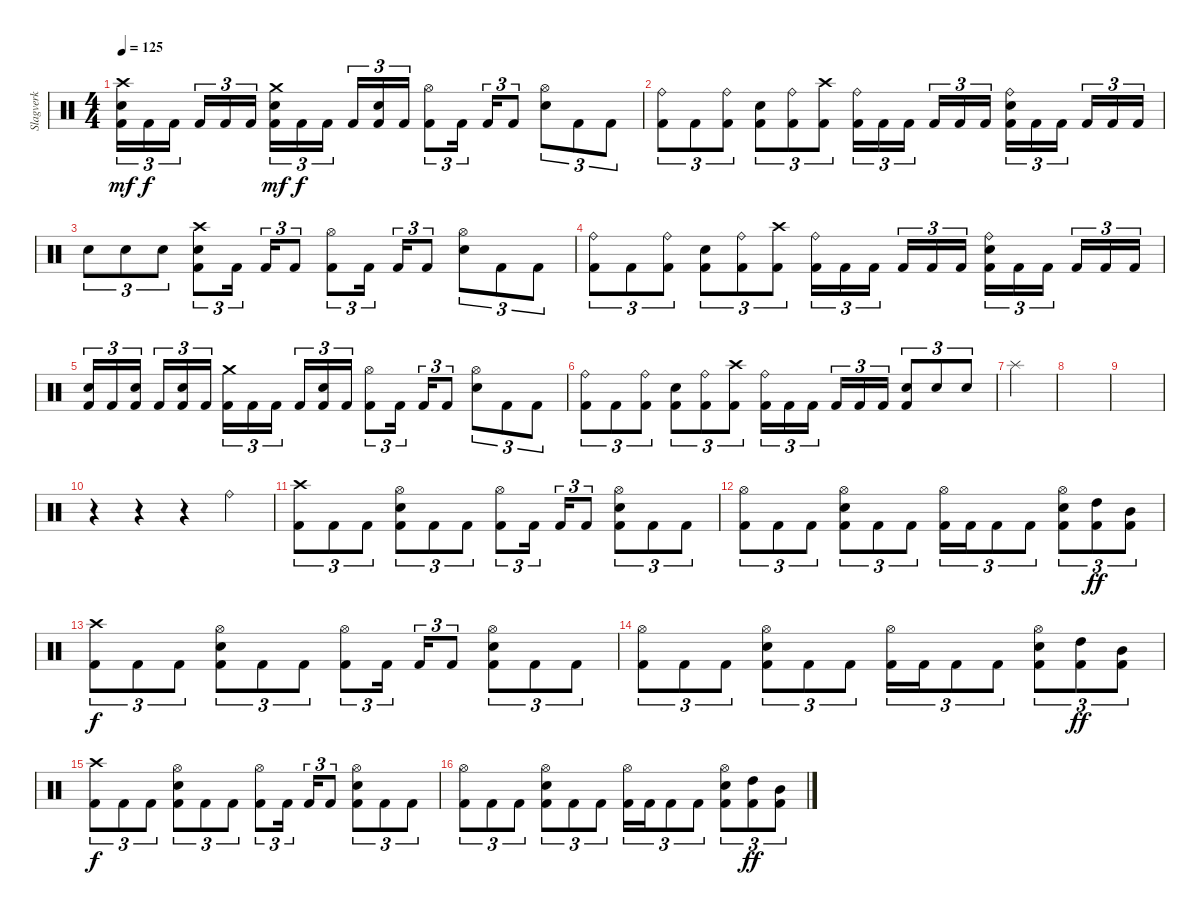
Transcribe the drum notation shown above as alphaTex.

\track ("Slagverk" "Slagverk") {instrument percussion}
\staff {score}
\articulation defaults
\ts (4 4)
\tempo 125
\clef neutral
\ks c
("Crash high (hit)" "Electric Snare (hit)" "Kick (hit) 2").16{tu (3 2) dy mf} "Kick (hit) 2".16{tu (3 2) dy f} "Kick (hit) 2".16{tu (3 2) beam splitsecondary} "Kick (hit) 2".16{tu (3 2)} "Kick (hit) 2".16{tu (3 2)} "Kick (hit) 2".16{tu (3 2)} ("Crash medium (hit)" "Electric Snare (hit)" "Kick (hit) 2").16{tu (3 2) dy mf} "Kick (hit) 2".16{tu (3 2) dy f} "Kick (hit) 2".16{tu (3 2) beam splitsecondary} "Kick (hit) 2".16{tu (3 2)} ("Electric Snare (hit)" "Kick (hit) 2").16{tu (3 2)} "Kick (hit) 2".16{tu (3 2)} ("Hi-Hat (open)" "Kick (hit) 2").8{tu (3 2)} "Kick (hit) 2".16{tu (3 2) beam splitsecondary} "Kick (hit) 2".16{tu (3 2)} "Kick (hit) 2".8{tu (3 2)} ("Hi-Hat (open)" "Electric Snare (hit)").8{tu (3 2)} "Kick (hit) 2".8{tu (3 2)} "Kick (hit) 2".8{tu (3 2)} |
("Ride (bell)" "Kick (hit) 2").8{tu (3 2)} "Kick (hit) 2".8{tu (3 2)} ("Ride (bell)" "Kick (hit) 2").8{tu (3 2)} ("Electric Snare (hit)" "Kick (hit) 2").8{tu (3 2)} ("Ride (bell)" "Kick (hit) 2").8{tu (3 2)} ("Crash high (hit)" "Kick (hit) 2").8{tu (3 2)} ("Ride (bell)" "Kick (hit) 2").16{tu (3 2)} "Kick (hit) 2".16{tu (3 2)} "Kick (hit) 2".16{tu (3 2) beam splitsecondary} "Kick (hit) 2".16{tu (3 2)} "Kick (hit) 2".16{tu (3 2)} "Kick (hit) 2".16{tu (3 2)} ("Ride (bell)" "Electric Snare (hit)" "Kick (hit) 2").16{tu (3 2)} "Kick (hit) 2".16{tu (3 2)} "Kick (hit) 2".16{tu (3 2) beam splitsecondary} "Kick (hit) 2".16{tu (3 2)} "Kick (hit) 2".16{tu (3 2)} "Kick (hit) 2".16{tu (3 2)} |
"Electric Snare (hit)".8{tu (3 2)} "Electric Snare (hit)".8{tu (3 2)} "Electric Snare (hit)".8{tu (3 2)} ("Crash high (hit)" "Electric Snare (hit)" "Kick (hit) 2").8{tu (3 2)} "Kick (hit) 2".16{tu (3 2) beam splitsecondary} "Kick (hit) 2".16{tu (3 2)} "Kick (hit) 2".8{tu (3 2)} ("Hi-Hat (open)" "Kick (hit) 2").8{tu (3 2)} "Kick (hit) 2".16{tu (3 2) beam splitsecondary} "Kick (hit) 2".16{tu (3 2)} "Kick (hit) 2".8{tu (3 2)} ("Hi-Hat (open)" "Electric Snare (hit)").8{tu (3 2)} "Kick (hit) 2".8{tu (3 2)} "Kick (hit) 2".8{tu (3 2)} |
("Ride (bell)" "Kick (hit) 2").8{tu (3 2)} "Kick (hit) 2".8{tu (3 2)} ("Ride (bell)" "Kick (hit) 2").8{tu (3 2)} ("Electric Snare (hit)" "Kick (hit) 2").8{tu (3 2)} ("Ride (bell)" "Kick (hit) 2").8{tu (3 2)} ("Crash high (hit)" "Kick (hit) 2").8{tu (3 2)} ("Ride (bell)" "Kick (hit) 2").16{tu (3 2)} "Kick (hit) 2".16{tu (3 2)} "Kick (hit) 2".16{tu (3 2) beam splitsecondary} "Kick (hit) 2".16{tu (3 2)} "Kick (hit) 2".16{tu (3 2)} "Kick (hit) 2".16{tu (3 2)} ("Ride (bell)" "Electric Snare (hit)" "Kick (hit) 2").16{tu (3 2)} "Kick (hit) 2".16{tu (3 2)} "Kick (hit) 2".16{tu (3 2) beam splitsecondary} "Kick (hit) 2".16{tu (3 2)} "Kick (hit) 2".16{tu (3 2)} "Kick (hit) 2".16{tu (3 2)} |
("Electric Snare (hit)" "Kick (hit) 2").16{tu (3 2)} "Kick (hit) 2".16{tu (3 2)} ("Electric Snare (hit)" "Kick (hit) 2").16{tu (3 2) beam splitsecondary} "Kick (hit) 2".16{tu (3 2)} ("Electric Snare (hit)" "Kick (hit) 2").16{tu (3 2)} "Kick (hit) 2".16{tu (3 2)} ("Crash medium (hit)" "Kick (hit) 2").16{tu (3 2)} "Kick (hit) 2".16{tu (3 2)} "Kick (hit) 2".16{tu (3 2) beam splitsecondary} "Kick (hit) 2".16{tu (3 2)} ("Electric Snare (hit)" "Kick (hit) 2").16{tu (3 2)} "Kick (hit) 2".16{tu (3 2)} ("Hi-Hat (open)" "Kick (hit) 2").8{tu (3 2)} "Kick (hit) 2".16{tu (3 2) beam splitsecondary} "Kick (hit) 2".16{tu (3 2)} "Kick (hit) 2".8{tu (3 2)} ("Hi-Hat (open)" "Electric Snare (hit)").8{tu (3 2)} "Kick (hit) 2".8{tu (3 2)} "Kick (hit) 2".8{tu (3 2)} |
("Ride (bell)" "Kick (hit) 2").8{tu (3 2)} "Kick (hit) 2".8{tu (3 2)} ("Ride (bell)" "Kick (hit) 2").8{tu (3 2)} ("Electric Snare (hit)" "Kick (hit) 2").8{tu (3 2)} ("Ride (bell)" "Kick (hit) 2").8{tu (3 2)} ("Crash high (hit)" "Kick (hit) 2").8{tu (3 2)} ("Ride (bell)" "Kick (hit) 2").16{tu (3 2)} "Kick (hit) 2".16{tu (3 2)} "Kick (hit) 2".16{tu (3 2) beam splitsecondary} "Kick (hit) 2".16{tu (3 2)} "Kick (hit) 2".16{tu (3 2)} "Kick (hit) 2".16{tu (3 2)} ("Electric Snare (hit)" "Kick (hit) 2").8{tu (3 2)} "Electric Snare (hit)".8{tu (3 2)} "Electric Snare (hit)".8{tu (3 2)} |
"Splash (hit)".4 |
|
|
r.4 r.4 r.4 "Ride (bell)".4 |
("Crash high (hit)" "Kick (hit) 2").8{tu (3 2)} "Kick (hit) 2".8{tu (3 2)} "Kick (hit) 2".8{tu (3 2)} ("Hi-Hat (open)" "Electric Snare (hit)" "Kick (hit) 2").8{tu (3 2)} "Kick (hit) 2".8{tu (3 2)} "Kick (hit) 2".8{tu (3 2)} ("Hi-Hat (open)" "Kick (hit) 2").8{tu (3 2)} "Kick (hit) 2".16{tu (3 2) beam splitsecondary} "Kick (hit) 2".16{tu (3 2)} "Kick (hit) 2".8{tu (3 2)} ("Hi-Hat (open)" "Electric Snare (hit)" "Kick (hit) 2").8{tu (3 2)} "Kick (hit) 2".8{tu (3 2)} "Kick (hit) 2".8{tu (3 2)} |
("Hi-Hat (open)" "Kick (hit) 2").8{tu (3 2)} "Kick (hit) 2".8{tu (3 2)} "Kick (hit) 2".8{tu (3 2)} ("Hi-Hat (open)" "Electric Snare (hit)" "Kick (hit) 2").8{tu (3 2)} "Kick (hit) 2".8{tu (3 2)} "Kick (hit) 2".8{tu (3 2)} ("Hi-Hat (open)" "Kick (hit) 2").16{tu (3 2)} "Kick (hit) 2".16{tu (3 2)} "Kick (hit) 2".8{tu (3 2)} "Kick (hit) 2".8{tu (3 2)} ("Hi-Hat (open)" "Electric Snare (hit)" "Kick (hit) 2").8{tu (3 2)} ("High Tom (hit)" "Kick (hit) 2").8{tu (3 2) dy ff} ("Mid Tom (hit)" "Kick (hit) 2").8{tu (3 2)} |
("Crash high (hit)" "Kick (hit) 2").8{tu (3 2) dy f} "Kick (hit) 2".8{tu (3 2)} "Kick (hit) 2".8{tu (3 2)} ("Hi-Hat (open)" "Electric Snare (hit)" "Kick (hit) 2").8{tu (3 2)} "Kick (hit) 2".8{tu (3 2)} "Kick (hit) 2".8{tu (3 2)} ("Hi-Hat (open)" "Kick (hit) 2").8{tu (3 2)} "Kick (hit) 2".16{tu (3 2) beam splitsecondary} "Kick (hit) 2".16{tu (3 2)} "Kick (hit) 2".8{tu (3 2)} ("Hi-Hat (open)" "Electric Snare (hit)" "Kick (hit) 2").8{tu (3 2)} "Kick (hit) 2".8{tu (3 2)} "Kick (hit) 2".8{tu (3 2)} |
("Hi-Hat (open)" "Kick (hit) 2").8{tu (3 2)} "Kick (hit) 2".8{tu (3 2)} "Kick (hit) 2".8{tu (3 2)} ("Hi-Hat (open)" "Electric Snare (hit)" "Kick (hit) 2").8{tu (3 2)} "Kick (hit) 2".8{tu (3 2)} "Kick (hit) 2".8{tu (3 2)} ("Hi-Hat (open)" "Kick (hit) 2").16{tu (3 2)} "Kick (hit) 2".16{tu (3 2)} "Kick (hit) 2".8{tu (3 2)} "Kick (hit) 2".8{tu (3 2)} ("Hi-Hat (open)" "Electric Snare (hit)" "Kick (hit) 2").8{tu (3 2)} ("High Tom (hit)" "Kick (hit) 2").8{tu (3 2) dy ff} ("Mid Tom (hit)" "Kick (hit) 2").8{tu (3 2)} |
("Crash high (hit)" "Kick (hit) 2").8{tu (3 2) dy f} "Kick (hit) 2".8{tu (3 2)} "Kick (hit) 2".8{tu (3 2)} ("Hi-Hat (open)" "Electric Snare (hit)" "Kick (hit) 2").8{tu (3 2)} "Kick (hit) 2".8{tu (3 2)} "Kick (hit) 2".8{tu (3 2)} ("Hi-Hat (open)" "Kick (hit) 2").8{tu (3 2)} "Kick (hit) 2".16{tu (3 2) beam splitsecondary} "Kick (hit) 2".16{tu (3 2)} "Kick (hit) 2".8{tu (3 2)} ("Hi-Hat (open)" "Electric Snare (hit)" "Kick (hit) 2").8{tu (3 2)} "Kick (hit) 2".8{tu (3 2)} "Kick (hit) 2".8{tu (3 2)} |
("Hi-Hat (open)" "Kick (hit) 2").8{tu (3 2)} "Kick (hit) 2".8{tu (3 2)} "Kick (hit) 2".8{tu (3 2)} ("Hi-Hat (open)" "Electric Snare (hit)" "Kick (hit) 2").8{tu (3 2)} "Kick (hit) 2".8{tu (3 2)} "Kick (hit) 2".8{tu (3 2)} ("Hi-Hat (open)" "Kick (hit) 2").16{tu (3 2)} "Kick (hit) 2".16{tu (3 2)} "Kick (hit) 2".8{tu (3 2)} "Kick (hit) 2".8{tu (3 2)} ("Hi-Hat (open)" "Electric Snare (hit)" "Kick (hit) 2").8{tu (3 2)} ("High Tom (hit)" "Kick (hit) 2").8{tu (3 2) dy ff} ("Mid Tom (hit)" "Kick (hit) 2").8{tu (3 2)}
